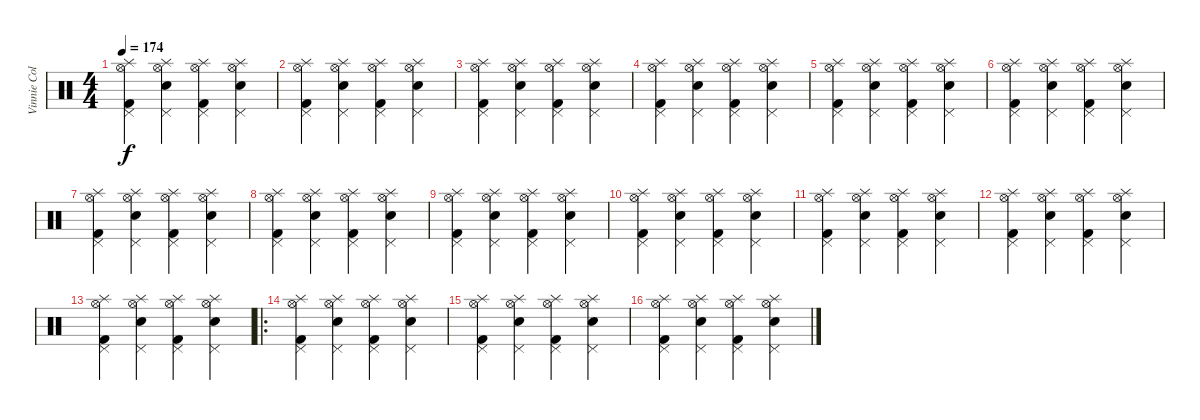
\track ("Vinnie Colaiuta" "Vinnie Col") {instrument percussion}
\staff {score}
\articulation defaults
\ts (4 4)
\tempo 174
\clef neutral
\ks c
("Splash (hit)" "Kick (hit) 2" "Pedal Hi-Hat (hit)" "Hi-Hat (open)").4{dy f} ("Splash (hit)" "Snare (hit) 2" "Pedal Hi-Hat (hit)" "Hi-Hat (open)").4 ("Splash (hit)" "Kick (hit) 2" "Pedal Hi-Hat (hit)" "Hi-Hat (open)").4 ("Splash (hit)" "Snare (hit) 2" "Pedal Hi-Hat (hit)" "Hi-Hat (open)").4 |
("Splash (hit)" "Kick (hit) 2" "Pedal Hi-Hat (hit)" "Hi-Hat (open)").4 ("Splash (hit)" "Snare (hit) 2" "Pedal Hi-Hat (hit)" "Hi-Hat (open)").4 ("Splash (hit)" "Kick (hit) 2" "Pedal Hi-Hat (hit)" "Hi-Hat (open)").4 ("Splash (hit)" "Snare (hit) 2" "Pedal Hi-Hat (hit)" "Hi-Hat (open)").4 |
("Splash (hit)" "Kick (hit) 2" "Pedal Hi-Hat (hit)" "Hi-Hat (open)").4 ("Splash (hit)" "Snare (hit) 2" "Pedal Hi-Hat (hit)" "Hi-Hat (open)").4 ("Splash (hit)" "Kick (hit) 2" "Pedal Hi-Hat (hit)" "Hi-Hat (open)").4 ("Splash (hit)" "Snare (hit) 2" "Pedal Hi-Hat (hit)" "Hi-Hat (open)").4 |
("Splash (hit)" "Kick (hit) 2" "Pedal Hi-Hat (hit)" "Hi-Hat (open)").4 ("Splash (hit)" "Snare (hit) 2" "Pedal Hi-Hat (hit)" "Hi-Hat (open)").4 ("Splash (hit)" "Kick (hit) 2" "Pedal Hi-Hat (hit)" "Hi-Hat (open)").4 ("Splash (hit)" "Snare (hit) 2" "Pedal Hi-Hat (hit)" "Hi-Hat (open)").4 |
("Splash (hit)" "Kick (hit) 2" "Pedal Hi-Hat (hit)" "Hi-Hat (open)").4 ("Splash (hit)" "Snare (hit) 2" "Pedal Hi-Hat (hit)" "Hi-Hat (open)").4 ("Splash (hit)" "Kick (hit) 2" "Pedal Hi-Hat (hit)" "Hi-Hat (open)").4 ("Splash (hit)" "Snare (hit) 2" "Pedal Hi-Hat (hit)" "Hi-Hat (open)").4 |
("Splash (hit)" "Kick (hit) 2" "Pedal Hi-Hat (hit)" "Hi-Hat (open)").4 ("Splash (hit)" "Snare (hit) 2" "Pedal Hi-Hat (hit)" "Hi-Hat (open)").4 ("Splash (hit)" "Kick (hit) 2" "Pedal Hi-Hat (hit)" "Hi-Hat (open)").4 ("Splash (hit)" "Snare (hit) 2" "Pedal Hi-Hat (hit)" "Hi-Hat (open)").4 |
("Splash (hit)" "Kick (hit) 2" "Pedal Hi-Hat (hit)" "Hi-Hat (open)").4 ("Splash (hit)" "Snare (hit) 2" "Pedal Hi-Hat (hit)" "Hi-Hat (open)").4 ("Splash (hit)" "Kick (hit) 2" "Pedal Hi-Hat (hit)" "Hi-Hat (open)").4 ("Splash (hit)" "Snare (hit) 2" "Pedal Hi-Hat (hit)" "Hi-Hat (open)").4 |
("Splash (hit)" "Kick (hit) 2" "Pedal Hi-Hat (hit)" "Hi-Hat (open)").4 ("Splash (hit)" "Snare (hit) 2" "Pedal Hi-Hat (hit)" "Hi-Hat (open)").4 ("Splash (hit)" "Kick (hit) 2" "Pedal Hi-Hat (hit)" "Hi-Hat (open)").4 ("Splash (hit)" "Snare (hit) 2" "Pedal Hi-Hat (hit)" "Hi-Hat (open)").4 |
("Splash (hit)" "Kick (hit) 2" "Pedal Hi-Hat (hit)" "Hi-Hat (open)").4 ("Splash (hit)" "Snare (hit) 2" "Pedal Hi-Hat (hit)" "Hi-Hat (open)").4 ("Splash (hit)" "Kick (hit) 2" "Pedal Hi-Hat (hit)" "Hi-Hat (open)").4 ("Splash (hit)" "Snare (hit) 2" "Pedal Hi-Hat (hit)" "Hi-Hat (open)").4 |
("Splash (hit)" "Kick (hit) 2" "Pedal Hi-Hat (hit)" "Hi-Hat (open)").4 ("Splash (hit)" "Snare (hit) 2" "Pedal Hi-Hat (hit)" "Hi-Hat (open)").4 ("Splash (hit)" "Kick (hit) 2" "Pedal Hi-Hat (hit)" "Hi-Hat (open)").4 ("Splash (hit)" "Snare (hit) 2" "Pedal Hi-Hat (hit)" "Hi-Hat (open)").4 |
("Splash (hit)" "Kick (hit) 2" "Pedal Hi-Hat (hit)" "Hi-Hat (open)").4 ("Splash (hit)" "Snare (hit) 2" "Pedal Hi-Hat (hit)" "Hi-Hat (open)").4 ("Splash (hit)" "Kick (hit) 2" "Pedal Hi-Hat (hit)" "Hi-Hat (open)").4 ("Splash (hit)" "Snare (hit) 2" "Pedal Hi-Hat (hit)" "Hi-Hat (open)").4 |
("Splash (hit)" "Kick (hit) 2" "Pedal Hi-Hat (hit)" "Hi-Hat (open)").4 ("Splash (hit)" "Snare (hit) 2" "Pedal Hi-Hat (hit)" "Hi-Hat (open)").4 ("Splash (hit)" "Kick (hit) 2" "Pedal Hi-Hat (hit)" "Hi-Hat (open)").4 ("Splash (hit)" "Snare (hit) 2" "Pedal Hi-Hat (hit)" "Hi-Hat (open)").4 |
("Splash (hit)" "Kick (hit) 2" "Pedal Hi-Hat (hit)" "Hi-Hat (open)").4 ("Splash (hit)" "Snare (hit) 2" "Pedal Hi-Hat (hit)" "Hi-Hat (open)").4 ("Splash (hit)" "Kick (hit) 2" "Pedal Hi-Hat (hit)" "Hi-Hat (open)").4 ("Splash (hit)" "Snare (hit) 2" "Pedal Hi-Hat (hit)" "Hi-Hat (open)").4 |
\ro
("Splash (hit)" "Kick (hit) 2" "Pedal Hi-Hat (hit)" "Hi-Hat (open)").4 ("Splash (hit)" "Snare (hit) 2" "Pedal Hi-Hat (hit)" "Hi-Hat (open)").4 ("Splash (hit)" "Kick (hit) 2" "Pedal Hi-Hat (hit)" "Hi-Hat (open)").4 ("Splash (hit)" "Snare (hit) 2" "Pedal Hi-Hat (hit)" "Hi-Hat (open)").4 |
("Splash (hit)" "Kick (hit) 2" "Pedal Hi-Hat (hit)" "Hi-Hat (open)").4 ("Splash (hit)" "Snare (hit) 2" "Pedal Hi-Hat (hit)" "Hi-Hat (open)").4 ("Splash (hit)" "Kick (hit) 2" "Pedal Hi-Hat (hit)" "Hi-Hat (open)").4 ("Splash (hit)" "Snare (hit) 2" "Pedal Hi-Hat (hit)" "Hi-Hat (open)").4 |
("Splash (hit)" "Kick (hit) 2" "Pedal Hi-Hat (hit)" "Hi-Hat (open)").4 ("Splash (hit)" "Snare (hit) 2" "Pedal Hi-Hat (hit)" "Hi-Hat (open)").4 ("Splash (hit)" "Kick (hit) 2" "Pedal Hi-Hat (hit)" "Hi-Hat (open)").4 ("Splash (hit)" "Snare (hit) 2" "Pedal Hi-Hat (hit)" "Hi-Hat (open)").4
